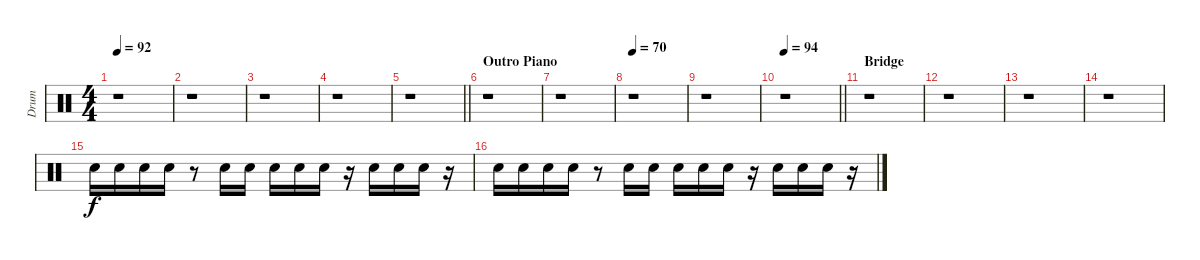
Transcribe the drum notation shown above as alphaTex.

\track ("Drum" "Drum") {instrument percussion}
\staff {score}
\articulation defaults
\ts (4 4)
\tempo 92
\clef neutral
\ks c
r.1{dy f} |
r.1 |
r.1 |
r.1 |
\barLineRight lightlight
r.1 |
\section ("" "Outro Piano")
r.1 |
r.1 |
\tempo 70
r.1 |
r.1 |
\tempo 94
\barLineRight lightlight
r.1 |
\section ("" "Bridge")
r.1 |
r.1 |
r.1 |
r.1 |
"Electric Snare (hit)".16 "Electric Snare (hit)".16 "Electric Snare (hit)".16 "Electric Snare (hit)".16 r.8 "Electric Snare (hit)".16 "Electric Snare (hit)".16 "Electric Snare (hit)".16 "Electric Snare (hit)".16 "Electric Snare (hit)".16 r.16 "Electric Snare (hit)".16 "Electric Snare (hit)".16 "Electric Snare (hit)".16 r.16 |
"Electric Snare (hit)".16 "Electric Snare (hit)".16 "Electric Snare (hit)".16 "Electric Snare (hit)".16 r.8 "Electric Snare (hit)".16 "Electric Snare (hit)".16 "Electric Snare (hit)".16 "Electric Snare (hit)".16 "Electric Snare (hit)".16 r.16 "Electric Snare (hit)".16 "Electric Snare (hit)".16 "Electric Snare (hit)".16 r.16
